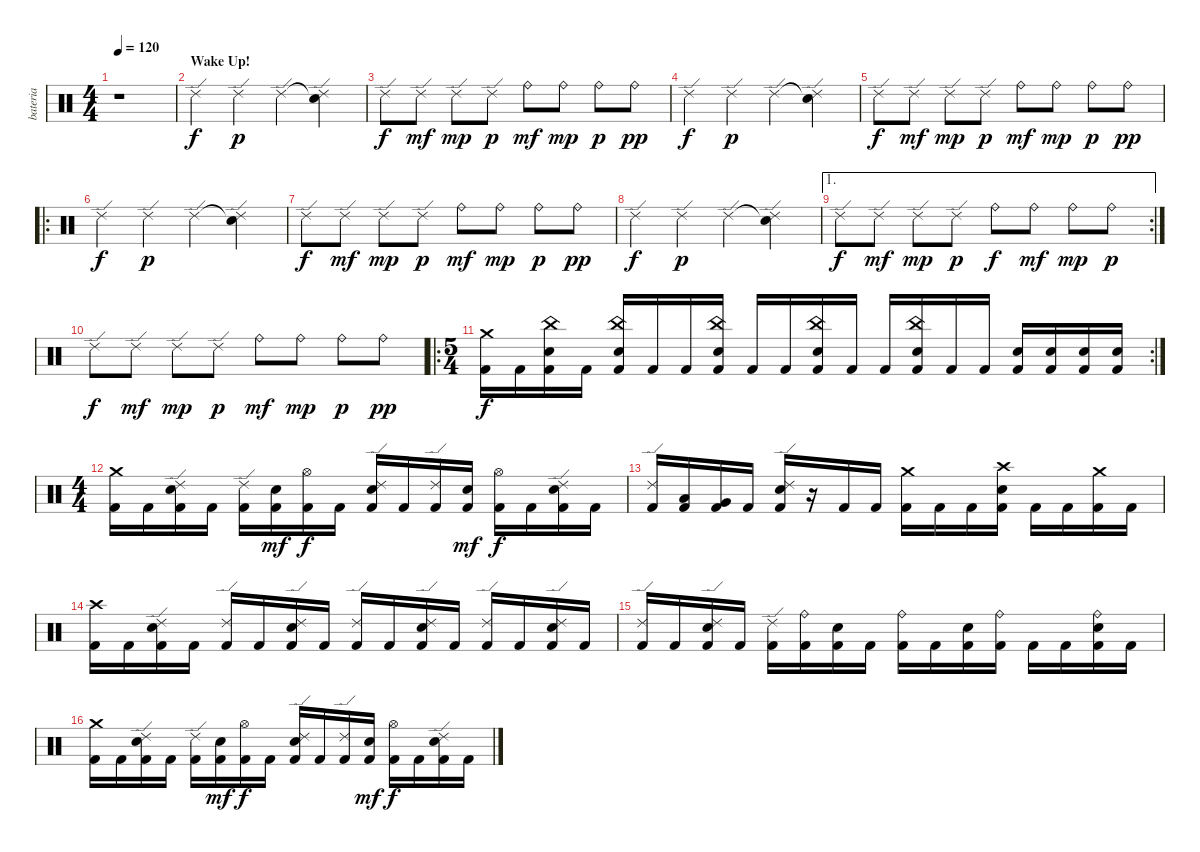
\track ("bateria" "bateria") {instrument percussion}
\staff {score}
\articulation defaults
\ts (4 4)
\tempo 120
\clef neutral
\ks c
r.1{dy f} |
\section ("" "Wake Up!")
"Ride (edge) 2".4 "Ride (edge) 2".4{dy p} "Ride (edge) 2".4 ("Snare (hit)"{t} "Ride (edge) 2").4 |
"Ride (edge) 2".8{dy f} "Ride (edge) 2".8{dy mf} "Ride (edge) 2".8{dy mp} "Ride (edge) 2".8{dy p} "Ride (bell)".8{dy mf} "Ride (bell)".8{dy mp} "Ride (bell)".8{dy p} "Ride (bell)".8{dy pp} |
"Ride (edge) 2".4{dy f} "Ride (edge) 2".4{dy p} "Ride (edge) 2".4 ("Snare (hit)"{t} "Ride (edge) 2").4 |
"Ride (edge) 2".8{dy f} "Ride (edge) 2".8{dy mf} "Ride (edge) 2".8{dy mp} "Ride (edge) 2".8{dy p} "Ride (bell)".8{dy mf} "Ride (bell)".8{dy mp} "Ride (bell)".8{dy p} "Ride (bell)".8{dy pp} |
\ro "Ride (edge) 2".4{dy f} "Ride (edge) 2".4{dy p} "Ride (edge) 2".4
("Snare (hit)"{t} "Ride (edge) 2").4 |
"Ride (edge) 2".8{dy f} "Ride (edge) 2".8{dy mf} "Ride (edge) 2".8{dy mp} "Ride (edge) 2".8{dy p} "Ride (bell)".8{dy mf} "Ride (bell)".8{dy mp} "Ride (bell)".8{dy p} "Ride (bell)".8{dy pp} |
"Ride (edge) 2".4{dy f} "Ride (edge) 2".4{dy p} "Ride (edge) 2".4 ("Snare (hit)"{t} "Ride (edge) 2").4 |
\ae 1
\rc 2 "Ride (edge) 2".8{dy f} "Ride (edge) 2".8{dy mf} "Ride (edge) 2".8{dy mp} "Ride (edge) 2".8{dy p} "Ride (bell)".8{dy f} "Ride (bell)".8{dy mf} "Ride (bell)".8{dy mp} "Ride (bell)".8{dy p}
|
"Ride (edge) 2".8{dy f} "Ride (edge) 2".8{dy mf} "Ride (edge) 2".8{dy mp} "Ride (edge) 2".8{dy p} "Ride (bell)".8{dy mf} "Ride (bell)".8{dy mp} "Ride (bell)".8{dy p} "Ride (bell)".8{dy pp} |
\ro
\rc 2
\ts (5 4)
("Crash medium (hit)" "Kick (hit) 2").16{dy f} "Kick (hit) 2".16 ("China (hit)" "Electric Snare (hit)" "Kick (hit) 2").16 "Kick (hit) 2".16 ("China (hit)" "Electric Snare (hit)" "Kick (hit) 2").16 "Kick (hit) 2".16 "Kick (hit) 2".16 ("China (hit)" "Electric Snare (hit)" "Kick (hit) 2").16 "Kick (hit) 2".16 "Kick (hit) 2".16 ("China (hit)" "Electric Snare (hit)" "Kick (hit) 2").16 "Kick (hit) 2".16 "Kick (hit) 2".16 ("China (hit)" "Electric Snare (hit)" "Kick (hit) 2").16 "Kick (hit) 2".16 "Kick (hit) 2".16 ("Electric Snare (hit)" "Kick (hit) 2").16 ("Electric Snare (hit)" "Kick (hit) 2").16 ("Electric Snare (hit)" "Kick (hit) 2").16 ("Electric Snare (hit)" "Kick (hit) 2").16 |
\ts (4 4)
("Crash medium (hit)" "Kick (hit) 2").16 "Kick (hit) 2".16 ("Ride (edge) 2" "Electric Snare (hit)" "Kick (hit) 2").16 "Kick (hit) 2".16 ("Ride (edge) 2" "Kick (hit) 2").16 ("Electric Snare (hit)" "Kick (hit) 2").16{dy mf} ("Hi-Hat (open)" "Kick (hit) 2").16{dy f} "Kick (hit) 2".16 ("Ride (edge) 2" "Electric Snare (hit)" "Kick (hit) 2").16 "Kick (hit) 2".16 ("Ride (edge) 2" "Kick (hit) 2").16 ("Electric Snare (hit)" "Kick (hit) 2").16{dy mf} ("Hi-Hat (open)" "Kick (hit) 2").16{dy f} "Kick (hit) 2".16 ("Ride (edge) 2" "Electric Snare (hit)" "Kick (hit) 2").16 "Kick (hit) 2".16 |
("Ride (edge) 2" "Kick (hit) 2").16 ("Low Tom (hit)" "Kick (hit) 2").16 ("Very Low Tom (hit)" "Kick (hit) 2").16 "Kick (hit) 2".16 ("Ride (edge) 2" "Electric Snare (hit)" "Kick (hit) 2").16 r.16 "Kick (hit) 2".16 "Kick (hit) 2".16 ("Crash medium (hit)" "Kick (hit) 2").16 "Kick (hit) 2".16 "Kick (hit) 2".16 ("Crash high (hit)" "Electric Snare (hit)" "Kick (hit) 2").16 "Kick (hit) 2".16 "Kick (hit) 2".16 ("Crash medium (hit)" "Kick (hit) 2").16 "Kick (hit) 2".16 |
("Crash high (hit)" "Kick (hit) 2").16 "Kick (hit) 2".16 ("Ride (edge) 2" "Electric Snare (hit)" "Kick (hit) 2").16 "Kick (hit) 2".16 ("Ride (edge) 2" "Kick (hit) 2").16 "Kick (hit) 2".16 ("Ride (edge) 2" "Electric Snare (hit)" "Kick (hit) 2").16 "Kick (hit) 2".16 ("Ride (edge) 2" "Kick (hit) 2").16 "Kick (hit) 2".16 ("Ride (edge) 2" "Electric Snare (hit)" "Kick (hit) 2").16 "Kick (hit) 2".16 ("Ride (edge) 2" "Kick (hit) 2").16 "Kick (hit) 2".16 ("Ride (edge) 2" "Electric Snare (hit)" "Kick (hit) 2").16 "Kick (hit) 2".16 |
("Ride (edge) 2" "Kick (hit) 2").16 "Kick (hit) 2".16 ("Ride (edge) 2" "Electric Snare (hit)" "Kick (hit) 2").16 "Kick (hit) 2".16 ("Ride (edge) 2" "Kick (hit) 2").16 ("Ride (bell)" "Kick (hit) 2").16 ("Electric Snare (hit)" "Kick (hit) 2").16 "Kick (hit) 2".16 ("Ride (bell)" "Kick (hit) 2").16 "Kick (hit) 2".16 ("Electric Snare (hit)" "Kick (hit) 2").16 ("Ride (bell)" "Kick (hit) 2").16 "Kick (hit) 2".16 "Kick (hit) 2".16 ("Ride (bell)" "Electric Snare (hit)" "Kick (hit) 2").16 "Kick (hit) 2".16 |
("Crash medium (hit)" "Kick (hit) 2").16 "Kick (hit) 2".16 ("Ride (edge) 2" "Electric Snare (hit)" "Kick (hit) 2").16 "Kick (hit) 2".16 ("Ride (edge) 2" "Kick (hit) 2").16 ("Electric Snare (hit)" "Kick (hit) 2").16{dy mf} ("Hi-Hat (open)" "Kick (hit) 2").16{dy f} "Kick (hit) 2".16 ("Ride (edge) 2" "Electric Snare (hit)" "Kick (hit) 2").16 "Kick (hit) 2".16 ("Ride (edge) 2" "Kick (hit) 2").16 ("Electric Snare (hit)" "Kick (hit) 2").16{dy mf} ("Hi-Hat (open)" "Kick (hit) 2").16{dy f} "Kick (hit) 2".16 ("Ride (edge) 2" "Electric Snare (hit)" "Kick (hit) 2").16 "Kick (hit) 2".16
